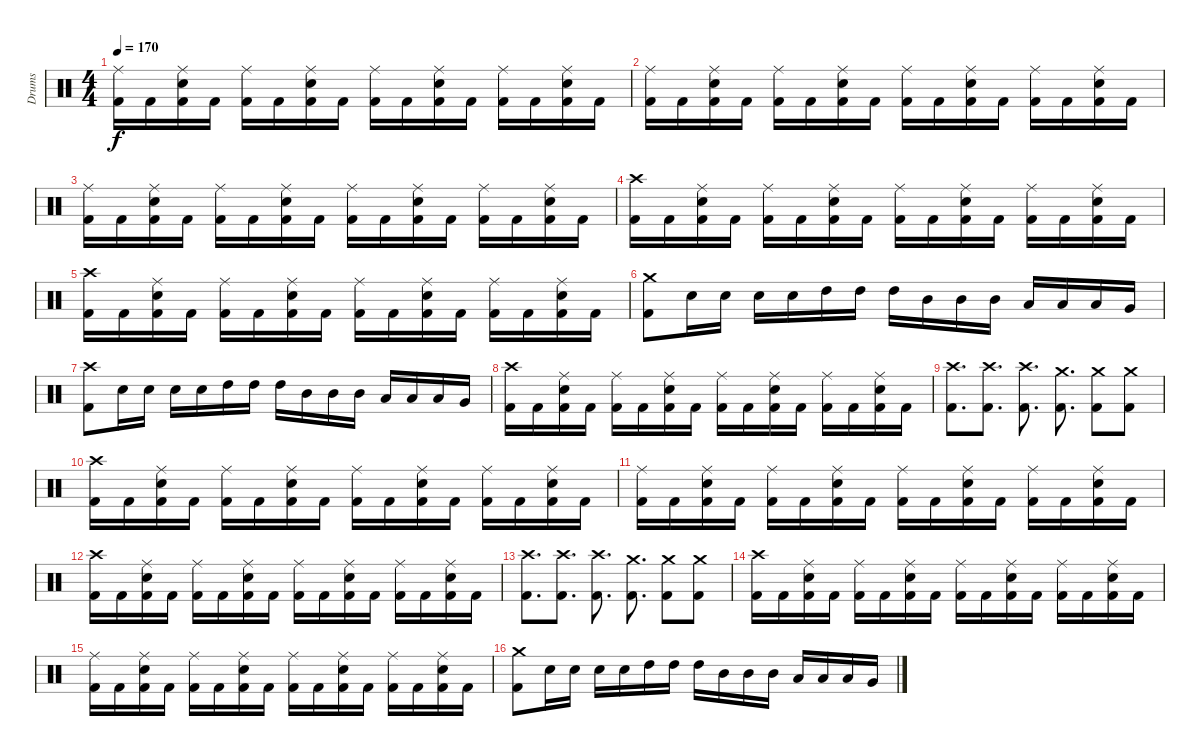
\track ("Drums" "Drums") {instrument percussion}
\staff {score}
\articulation defaults
\ts (4 4)
\tempo 170
\clef neutral
\ks c
("Ride (middle)" "Kick (hit) 2").16{dy f} "Kick (hit) 2".16 ("Ride (middle)" "Snare (hit) 2" "Kick (hit) 2").16 "Kick (hit) 2".16 ("Ride (middle)" "Kick (hit) 2").16 "Kick (hit) 2".16 ("Ride (middle)" "Snare (hit) 2" "Kick (hit) 2").16 "Kick (hit) 2".16 ("Ride (middle)" "Kick (hit) 2").16 "Kick (hit) 2".16 ("Ride (middle)" "Snare (hit) 2" "Kick (hit) 2").16 "Kick (hit) 2".16 ("Ride (middle)" "Kick (hit) 2").16 "Kick (hit) 2".16 ("Ride (middle)" "Snare (hit) 2" "Kick (hit) 2").16 "Kick (hit) 2".16 |
("Ride (middle)" "Kick (hit) 2").16 "Kick (hit) 2".16 ("Ride (middle)" "Snare (hit) 2" "Kick (hit) 2").16 "Kick (hit) 2".16 ("Ride (middle)" "Kick (hit) 2").16 "Kick (hit) 2".16 ("Ride (middle)" "Snare (hit) 2" "Kick (hit) 2").16 "Kick (hit) 2".16 ("Ride (middle)" "Kick (hit) 2").16 "Kick (hit) 2".16 ("Ride (middle)" "Snare (hit) 2" "Kick (hit) 2").16 "Kick (hit) 2".16 ("Ride (middle)" "Kick (hit) 2").16 "Kick (hit) 2".16 ("Ride (middle)" "Snare (hit) 2" "Kick (hit) 2").16 "Kick (hit) 2".16 |
("Ride (middle)" "Kick (hit) 2").16 "Kick (hit) 2".16 ("Ride (middle)" "Snare (hit) 2" "Kick (hit) 2").16 "Kick (hit) 2".16 ("Ride (middle)" "Kick (hit) 2").16 "Kick (hit) 2".16 ("Ride (middle)" "Snare (hit) 2" "Kick (hit) 2").16 "Kick (hit) 2".16 ("Ride (middle)" "Kick (hit) 2").16 "Kick (hit) 2".16 ("Ride (middle)" "Snare (hit) 2" "Kick (hit) 2").16 "Kick (hit) 2".16 ("Ride (middle)" "Kick (hit) 2").16 "Kick (hit) 2".16 ("Ride (middle)" "Snare (hit) 2" "Kick (hit) 2").16 "Kick (hit) 2".16 |
("Crash high (hit)" "Kick (hit) 2").16 "Kick (hit) 2".16 ("Ride (middle)" "Snare (hit) 2" "Kick (hit) 2").16 "Kick (hit) 2".16 ("Ride (middle)" "Kick (hit) 2").16 "Kick (hit) 2".16 ("Ride (middle)" "Snare (hit) 2" "Kick (hit) 2").16 "Kick (hit) 2".16 ("Ride (middle)" "Kick (hit) 2").16 "Kick (hit) 2".16 ("Ride (middle)" "Snare (hit) 2" "Kick (hit) 2").16 "Kick (hit) 2".16 ("Ride (middle)" "Kick (hit) 2").16 "Kick (hit) 2".16 ("Ride (middle)" "Snare (hit) 2" "Kick (hit) 2").16 "Kick (hit) 2".16 |
("Crash high (hit)" "Kick (hit) 2").16 "Kick (hit) 2".16 ("Ride (middle)" "Snare (hit) 2" "Kick (hit) 2").16 "Kick (hit) 2".16 ("Ride (middle)" "Kick (hit) 2").16 "Kick (hit) 2".16 ("Ride (middle)" "Snare (hit) 2" "Kick (hit) 2").16 "Kick (hit) 2".16 ("Ride (middle)" "Kick (hit) 2").16 "Kick (hit) 2".16 ("Ride (middle)" "Snare (hit) 2" "Kick (hit) 2").16 "Kick (hit) 2".16 ("Ride (middle)" "Kick (hit) 2").16 "Kick (hit) 2".16 ("Ride (middle)" "Snare (hit) 2" "Kick (hit) 2").16 "Kick (hit) 2".16 |
("Crash medium (hit)" "Kick (hit) 2").8 "Snare (hit) 2".16 "Snare (hit) 2".16 "Snare (hit) 2".16 "Snare (hit) 2".16 "High Tom (hit)".16 "High Tom (hit)".16 "High Tom (hit)".16 "Mid Tom (hit)".16 "Mid Tom (hit)".16 "Mid Tom (hit)".16 "Low Tom (hit)".16 "Low Tom (hit)".16 "Low Tom (hit)".16 "Very Low Tom (hit)".16 |
("Crash high (hit)" "Kick (hit) 2").8 "Snare (hit) 2".16 "Snare (hit) 2".16 "Snare (hit) 2".16 "Snare (hit) 2".16 "High Tom (hit)".16 "High Tom (hit)".16 "High Tom (hit)".16 "Mid Tom (hit)".16 "Mid Tom (hit)".16 "Mid Tom (hit)".16 "Low Tom (hit)".16 "Low Tom (hit)".16 "Low Tom (hit)".16 "Very Low Tom (hit)".16 |
("Crash high (hit)" "Kick (hit) 2").16 "Kick (hit) 2".16 ("Ride (middle)" "Snare (hit) 2" "Kick (hit) 2").16 "Kick (hit) 2".16 ("Ride (middle)" "Kick (hit) 2").16 "Kick (hit) 2".16 ("Ride (middle)" "Snare (hit) 2" "Kick (hit) 2").16 "Kick (hit) 2".16 ("Ride (middle)" "Kick (hit) 2").16 "Kick (hit) 2".16 ("Ride (middle)" "Snare (hit) 2" "Kick (hit) 2").16 "Kick (hit) 2".16 ("Ride (middle)" "Kick (hit) 2").16 "Kick (hit) 2".16 ("Ride (middle)" "Snare (hit) 2" "Kick (hit) 2").16 "Kick (hit) 2".16 |
("Crash high (hit)" "Kick (hit) 2").8{d} ("Crash high (hit)" "Kick (hit) 2").8{d} ("Crash high (hit)" "Kick (hit) 2").8{d} ("Crash medium (hit)" "Kick (hit) 2").8{d} ("Crash medium (hit)" "Kick (hit) 2").8 ("Crash medium (hit)" "Kick (hit) 2").8 |
("Crash high (hit)" "Kick (hit) 2").16 "Kick (hit) 2".16 ("Ride (middle)" "Snare (hit) 2" "Kick (hit) 2").16 "Kick (hit) 2".16 ("Ride (middle)" "Kick (hit) 2").16 "Kick (hit) 2".16 ("Ride (middle)" "Snare (hit) 2" "Kick (hit) 2").16 "Kick (hit) 2".16 ("Ride (middle)" "Kick (hit) 2").16 "Kick (hit) 2".16 ("Ride (middle)" "Snare (hit) 2" "Kick (hit) 2").16 "Kick (hit) 2".16 ("Ride (middle)" "Kick (hit) 2").16 "Kick (hit) 2".16 ("Ride (middle)" "Snare (hit) 2" "Kick (hit) 2").16 "Kick (hit) 2".16 |
("Ride (middle)" "Kick (hit) 2").16 "Kick (hit) 2".16 ("Ride (middle)" "Snare (hit) 2" "Kick (hit) 2").16 "Kick (hit) 2".16 ("Ride (middle)" "Kick (hit) 2").16 "Kick (hit) 2".16 ("Ride (middle)" "Snare (hit) 2" "Kick (hit) 2").16 "Kick (hit) 2".16 ("Ride (middle)" "Kick (hit) 2").16 "Kick (hit) 2".16 ("Ride (middle)" "Snare (hit) 2" "Kick (hit) 2").16 "Kick (hit) 2".16 ("Ride (middle)" "Kick (hit) 2").16 "Kick (hit) 2".16 ("Ride (middle)" "Snare (hit) 2" "Kick (hit) 2").16 "Kick (hit) 2".16 |
("Crash high (hit)" "Kick (hit) 2").16 "Kick (hit) 2".16 ("Ride (middle)" "Snare (hit) 2" "Kick (hit) 2").16 "Kick (hit) 2".16 ("Ride (middle)" "Kick (hit) 2").16 "Kick (hit) 2".16 ("Ride (middle)" "Snare (hit) 2" "Kick (hit) 2").16 "Kick (hit) 2".16 ("Ride (middle)" "Kick (hit) 2").16 "Kick (hit) 2".16 ("Ride (middle)" "Snare (hit) 2" "Kick (hit) 2").16 "Kick (hit) 2".16 ("Ride (middle)" "Kick (hit) 2").16 "Kick (hit) 2".16 ("Ride (middle)" "Snare (hit) 2" "Kick (hit) 2").16 "Kick (hit) 2".16 |
("Crash high (hit)" "Kick (hit) 2").8{d} ("Crash high (hit)" "Kick (hit) 2").8{d} ("Crash high (hit)" "Kick (hit) 2").8{d} ("Crash medium (hit)" "Kick (hit) 2").8{d} ("Crash medium (hit)" "Kick (hit) 2").8 ("Crash medium (hit)" "Kick (hit) 2").8 |
("Crash high (hit)" "Kick (hit) 2").16 "Kick (hit) 2".16 ("Ride (middle)" "Snare (hit) 2" "Kick (hit) 2").16 "Kick (hit) 2".16 ("Ride (middle)" "Kick (hit) 2").16 "Kick (hit) 2".16 ("Ride (middle)" "Snare (hit) 2" "Kick (hit) 2").16 "Kick (hit) 2".16 ("Ride (middle)" "Kick (hit) 2").16 "Kick (hit) 2".16 ("Ride (middle)" "Snare (hit) 2" "Kick (hit) 2").16 "Kick (hit) 2".16 ("Ride (middle)" "Kick (hit) 2").16 "Kick (hit) 2".16 ("Ride (middle)" "Snare (hit) 2" "Kick (hit) 2").16 "Kick (hit) 2".16 |
("Ride (middle)" "Kick (hit) 2").16 "Kick (hit) 2".16 ("Ride (middle)" "Snare (hit) 2" "Kick (hit) 2").16 "Kick (hit) 2".16 ("Ride (middle)" "Kick (hit) 2").16 "Kick (hit) 2".16 ("Ride (middle)" "Snare (hit) 2" "Kick (hit) 2").16 "Kick (hit) 2".16 ("Ride (middle)" "Kick (hit) 2").16 "Kick (hit) 2".16 ("Ride (middle)" "Snare (hit) 2" "Kick (hit) 2").16 "Kick (hit) 2".16 ("Ride (middle)" "Kick (hit) 2").16 "Kick (hit) 2".16 ("Ride (middle)" "Snare (hit) 2" "Kick (hit) 2").16 "Kick (hit) 2".16 |
("Crash medium (hit)" "Kick (hit) 2").8 "Snare (hit) 2".16 "Snare (hit) 2".16 "Snare (hit) 2".16 "Snare (hit) 2".16 "High Tom (hit)".16 "High Tom (hit)".16 "High Tom (hit)".16 "Mid Tom (hit)".16 "Mid Tom (hit)".16 "Mid Tom (hit)".16 "Low Tom (hit)".16 "Low Tom (hit)".16 "Low Tom (hit)".16 "Very Low Tom (hit)".16
